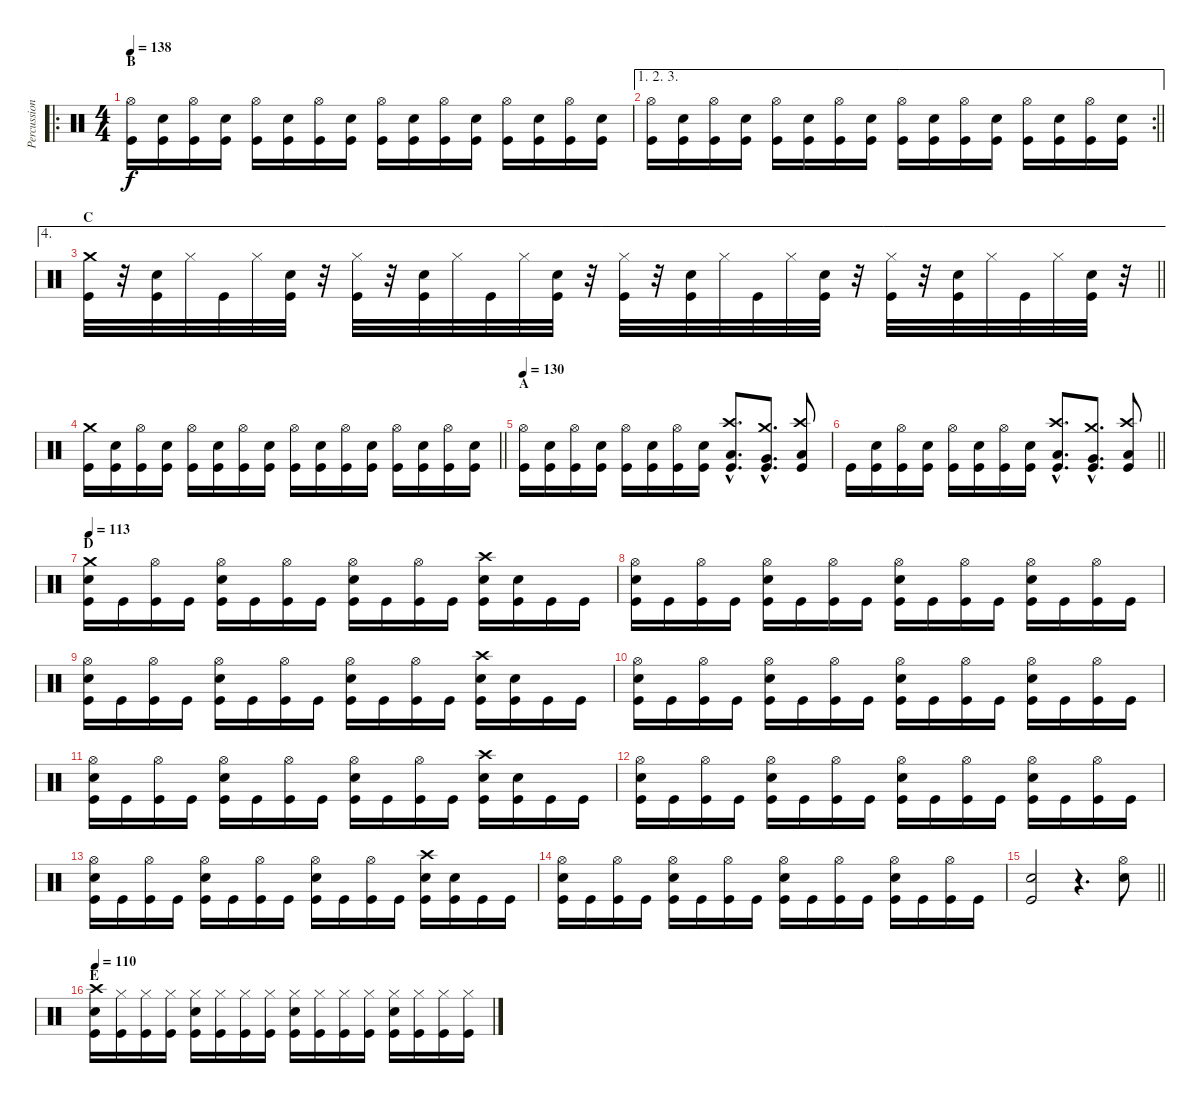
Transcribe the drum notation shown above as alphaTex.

\track ("Percussion" "Percussion") {instrument percussion}
\staff {score}
\articulation defaults
\ro
\ts (4 4)
\section ("" "B")
\tempo 138
\clef neutral
\ks c
("Kick (hit)" "Hi-Hat (open)").16{dy f volume 11} ("Kick (hit)" "Snare (hit) 2").16 ("Kick (hit)" "Hi-Hat (open)").16 ("Kick (hit)" "Snare (hit) 2").16 ("Kick (hit)" "Hi-Hat (open)").16 ("Kick (hit)" "Snare (hit) 2").16 ("Kick (hit)" "Hi-Hat (open)").16 ("Kick (hit)" "Snare (hit) 2").16 ("Kick (hit)" "Hi-Hat (open)").16 ("Kick (hit)" "Snare (hit) 2").16 ("Kick (hit)" "Hi-Hat (open)").16 ("Kick (hit)" "Snare (hit) 2").16 ("Kick (hit)" "Hi-Hat (open)").16 ("Kick (hit)" "Snare (hit) 2").16 ("Kick (hit)" "Hi-Hat (open)").16 ("Kick (hit)" "Snare (hit) 2").16 |
\ae (1 2 3)
\rc 2
\barLineRight lightlight
("Kick (hit)" "Hi-Hat (open)").16 ("Kick (hit)" "Snare (hit) 2").16 ("Kick (hit)" "Hi-Hat (open)").16 ("Kick (hit)" "Snare (hit) 2").16 ("Kick (hit)" "Hi-Hat (open)").16 ("Kick (hit)" "Snare (hit) 2").16 ("Kick (hit)" "Hi-Hat (open)").16 ("Kick (hit)" "Snare (hit) 2").16 ("Kick (hit)" "Hi-Hat (open)").16 ("Kick (hit)" "Snare (hit) 2").16 ("Kick (hit)" "Hi-Hat (open)").16 ("Kick (hit)" "Snare (hit) 2").16 ("Kick (hit)" "Hi-Hat (open)").16 ("Kick (hit)" "Snare (hit) 2").16 ("Kick (hit)" "Hi-Hat (open)").16 ("Kick (hit)" "Snare (hit) 2").16 |
\ae 4
\section ("" "C")
\barLineRight lightlight
("Kick (hit)" "Crash medium (hit)").32 r.32 ("Kick (hit)" "Snare (hit) 2").32 "Hi-Hat (closed)".32 "Kick (hit)".32 "Hi-Hat (closed)".32 ("Kick (hit)" "Snare (hit) 2").32 r.32 ("Kick (hit)" "Hi-Hat (closed)").32 r.32 ("Kick (hit)" "Snare (hit) 2").32 "Hi-Hat (closed)".32 "Kick (hit)".32 "Hi-Hat (closed)".32 ("Kick (hit)" "Snare (hit) 2").32 r.32 ("Kick (hit)" "Hi-Hat (closed)").32 r.32 ("Kick (hit)" "Snare (hit) 2").32 "Hi-Hat (closed)".32 "Kick (hit)".32 "Hi-Hat (closed)".32 ("Kick (hit)" "Snare (hit) 2").32 r.32 ("Kick (hit)" "Hi-Hat (closed)").32 r.32 ("Kick (hit)" "Snare (hit) 2").32 "Hi-Hat (closed)".32 "Kick (hit)".32 "Hi-Hat (closed)".32 ("Kick (hit)" "Snare (hit) 2").32 r.32 |
\barLineRight lightlight
("Kick (hit)" "Crash medium (hit)").16 ("Kick (hit)" "Snare (hit) 2").16 ("Kick (hit)" "Hi-Hat (open)").16 ("Kick (hit)" "Snare (hit) 2").16 ("Kick (hit)" "Hi-Hat (open)").16 ("Kick (hit)" "Snare (hit) 2").16 ("Kick (hit)" "Hi-Hat (open)").16 ("Kick (hit)" "Snare (hit) 2").16 ("Kick (hit)" "Hi-Hat (open)").16 ("Kick (hit)" "Snare (hit) 2").16 ("Kick (hit)" "Hi-Hat (open)").16 ("Kick (hit)" "Snare (hit) 2").16 ("Kick (hit)" "Hi-Hat (open)").16 ("Kick (hit)" "Snare (hit) 2").16 ("Kick (hit)" "Hi-Hat (open)").16 ("Kick (hit)" "Snare (hit) 2").16 |
\section ("" "A")
\tempo 130
("Kick (hit)" "Hi-Hat (open)").16 ("Kick (hit)" "Snare (hit) 2").16 ("Kick (hit)" "Hi-Hat (open)").16 ("Kick (hit)" "Snare (hit) 2").16 ("Kick (hit)" "Hi-Hat (open)").16 ("Kick (hit)" "Snare (hit) 2").16 ("Kick (hit)" "Hi-Hat (open)").16 ("Kick (hit)" "Snare (hit) 2").16 ("Kick (hit)"{hac} "Crash high (hit)"{hac} "Low Tom (hit)"{hac}).8{d} ("Kick (hit)"{hac} "Crash medium (hit)"{hac} "Very Low Tom (hit)"{hac}).8{d} ("Kick (hit)" "Crash high (hit)" "Low Floor Tom (hit)").8 |
\barLineRight lightlight "Kick (hit)".16
("Kick (hit)" "Snare (hit) 2").16 ("Kick (hit)" "Hi-Hat (open)").16 ("Kick (hit)" "Snare (hit) 2").16 ("Kick (hit)" "Hi-Hat (open)").16 ("Kick (hit)" "Snare (hit) 2").16 ("Kick (hit)" "Hi-Hat (open)").16 ("Kick (hit)" "Snare (hit) 2").16 ("Kick (hit)"{hac} "Crash high (hit)"{hac} "Low Tom (hit)"{hac}).8{d} ("Kick (hit)"{hac} "Crash medium (hit)"{hac} "Very Low Tom (hit)"{hac}).8{d} ("Kick (hit)" "Crash high (hit)" "Low Floor Tom (hit)").8 |
\section ("" "D")
\tempo 113
("Kick (hit)" "Crash medium (hit)" "Snare (hit) 2").16 "Kick (hit)".16 ("Kick (hit)" "Hi-Hat (open)").16 "Kick (hit)".16 ("Kick (hit)" "Hi-Hat (open)" "Snare (hit) 2").16 "Kick (hit)".16 ("Kick (hit)" "Hi-Hat (open)").16 "Kick (hit)".16 ("Kick (hit)" "Hi-Hat (open)" "Snare (hit) 2").16 "Kick (hit)".16 ("Kick (hit)" "Hi-Hat (open)").16 "Kick (hit)".16 ("Kick (hit)" "Crash high (hit)" "Snare (hit) 2").16 ("Kick (hit)" "Snare (hit) 2").16 "Kick (hit)".16 "Kick (hit)".16 |
("Kick (hit)" "Hi-Hat (open)" "Snare (hit) 2").16 "Kick (hit)".16 ("Kick (hit)" "Hi-Hat (open)").16 "Kick (hit)".16 ("Kick (hit)" "Hi-Hat (open)" "Snare (hit) 2").16 "Kick (hit)".16 ("Kick (hit)" "Hi-Hat (open)").16 "Kick (hit)".16 ("Kick (hit)" "Hi-Hat (open)" "Snare (hit) 2").16 "Kick (hit)".16 ("Kick (hit)" "Hi-Hat (open)").16 "Kick (hit)".16 ("Kick (hit)" "Hi-Hat (open)" "Snare (hit) 2").16 "Kick (hit)".16 ("Kick (hit)" "Hi-Hat (open)").16 "Kick (hit)".16 |
("Kick (hit)" "Hi-Hat (open)" "Snare (hit) 2").16 "Kick (hit)".16 ("Kick (hit)" "Hi-Hat (open)").16 "Kick (hit)".16 ("Kick (hit)" "Hi-Hat (open)" "Snare (hit) 2").16 "Kick (hit)".16 ("Kick (hit)" "Hi-Hat (open)").16 "Kick (hit)".16 ("Kick (hit)" "Hi-Hat (open)" "Snare (hit) 2").16 "Kick (hit)".16 ("Kick (hit)" "Hi-Hat (open)").16 "Kick (hit)".16 ("Kick (hit)" "Crash high (hit)" "Snare (hit) 2").16 ("Kick (hit)" "Snare (hit) 2").16 "Kick (hit)".16 "Kick (hit)".16 |
("Kick (hit)" "Hi-Hat (open)" "Snare (hit) 2").16 "Kick (hit)".16 ("Kick (hit)" "Hi-Hat (open)").16 "Kick (hit)".16 ("Kick (hit)" "Hi-Hat (open)" "Snare (hit) 2").16 "Kick (hit)".16 ("Kick (hit)" "Hi-Hat (open)").16 "Kick (hit)".16 ("Kick (hit)" "Hi-Hat (open)" "Snare (hit) 2").16 "Kick (hit)".16 ("Kick (hit)" "Hi-Hat (open)").16 "Kick (hit)".16 ("Kick (hit)" "Hi-Hat (open)" "Snare (hit) 2").16 "Kick (hit)".16 ("Kick (hit)" "Hi-Hat (open)").16 "Kick (hit)".16 |
("Kick (hit)" "Hi-Hat (open)" "Snare (hit) 2").16 "Kick (hit)".16 ("Kick (hit)" "Hi-Hat (open)").16 "Kick (hit)".16 ("Kick (hit)" "Hi-Hat (open)" "Snare (hit) 2").16 "Kick (hit)".16 ("Kick (hit)" "Hi-Hat (open)").16 "Kick (hit)".16 ("Kick (hit)" "Hi-Hat (open)" "Snare (hit) 2").16 "Kick (hit)".16 ("Kick (hit)" "Hi-Hat (open)").16 "Kick (hit)".16 ("Kick (hit)" "Crash high (hit)" "Snare (hit) 2").16 ("Kick (hit)" "Snare (hit) 2").16 "Kick (hit)".16 "Kick (hit)".16 |
("Kick (hit)" "Hi-Hat (open)" "Snare (hit) 2").16 "Kick (hit)".16 ("Kick (hit)" "Hi-Hat (open)").16 "Kick (hit)".16 ("Kick (hit)" "Hi-Hat (open)" "Snare (hit) 2").16 "Kick (hit)".16 ("Kick (hit)" "Hi-Hat (open)").16 "Kick (hit)".16 ("Kick (hit)" "Hi-Hat (open)" "Snare (hit) 2").16 "Kick (hit)".16 ("Kick (hit)" "Hi-Hat (open)").16 "Kick (hit)".16 ("Kick (hit)" "Hi-Hat (open)" "Snare (hit) 2").16 "Kick (hit)".16 ("Kick (hit)" "Hi-Hat (open)").16 "Kick (hit)".16 |
("Kick (hit)" "Hi-Hat (open)" "Snare (hit) 2").16 "Kick (hit)".16 ("Kick (hit)" "Hi-Hat (open)").16 "Kick (hit)".16 ("Kick (hit)" "Hi-Hat (open)" "Snare (hit) 2").16 "Kick (hit)".16 ("Kick (hit)" "Hi-Hat (open)").16 "Kick (hit)".16 ("Kick (hit)" "Hi-Hat (open)" "Snare (hit) 2").16 "Kick (hit)".16 ("Kick (hit)" "Hi-Hat (open)").16 "Kick (hit)".16 ("Kick (hit)" "Crash high (hit)" "Snare (hit) 2").16 ("Kick (hit)" "Snare (hit) 2").16 "Kick (hit)".16 "Kick (hit)".16 |
("Kick (hit)" "Hi-Hat (open)" "Snare (hit) 2").16 "Kick (hit)".16 ("Kick (hit)" "Hi-Hat (open)").16 "Kick (hit)".16 ("Kick (hit)" "Hi-Hat (open)" "Snare (hit) 2").16 "Kick (hit)".16 ("Kick (hit)" "Hi-Hat (open)").16 "Kick (hit)".16 ("Kick (hit)" "Hi-Hat (open)" "Snare (hit) 2").16 "Kick (hit)".16 ("Kick (hit)" "Hi-Hat (open)").16 "Kick (hit)".16 ("Kick (hit)" "Hi-Hat (open)" "Snare (hit) 2").16 "Kick (hit)".16 ("Kick (hit)" "Hi-Hat (open)").16 "Kick (hit)".16 |
\barLineRight lightlight
("Kick (hit)" "Snare (hit) 2").2 r.4{d} ("Snare (hit) 2" "Hi-Hat (open)").8 |
\section ("" "E")
\tempo 110
("Kick (hit)" "Crash high (hit)" "Snare (hit) 2").16 ("Kick (hit)" "Hi-Hat (closed)").16 ("Kick (hit)" "Hi-Hat (closed)").16 ("Kick (hit)" "Hi-Hat (closed)").16 ("Kick (hit)" "Hi-Hat (closed)" "Snare (hit) 2").16 ("Kick (hit)" "Hi-Hat (closed)").16 ("Kick (hit)" "Hi-Hat (closed)").16 ("Kick (hit)" "Hi-Hat (closed)").16 ("Kick (hit)" "Hi-Hat (closed)" "Snare (hit) 2").16 ("Kick (hit)" "Hi-Hat (closed)").16 ("Kick (hit)" "Hi-Hat (closed)").16 ("Kick (hit)" "Hi-Hat (closed)").16 ("Kick (hit)" "Hi-Hat (closed)" "Snare (hit) 2").16 ("Kick (hit)" "Hi-Hat (closed)").16 ("Kick (hit)" "Hi-Hat (closed)").16 ("Kick (hit)" "Hi-Hat (closed)").16
